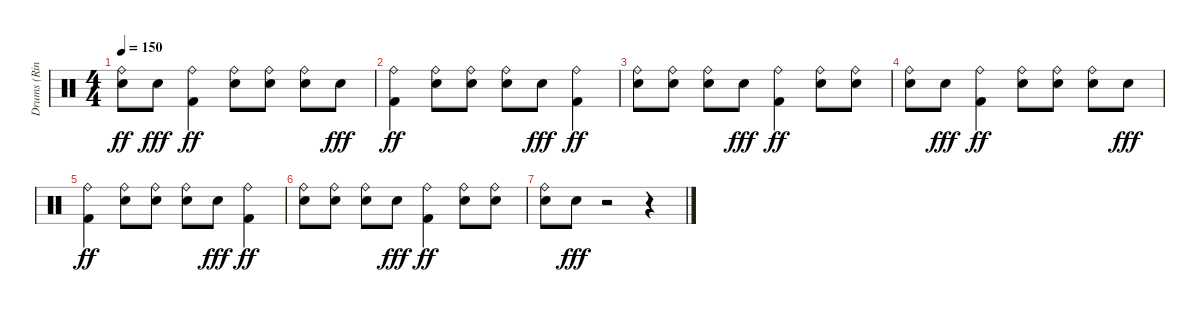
\track ("Drums (Ringo Starr)" "Drums (Rin") {instrument percussion}
\staff {score}
\articulation defaults
\ts (4 4)
\tempo 150
\clef neutral
\ks c
("Snare (hit) 2" "Ride (bell)").8{dy ff} "Snare (hit) 2".8{dy fff} ("Kick (hit) 2" "Ride (bell)").4{dy ff} ("Snare (hit) 2" "Ride (bell)").8 ("Ride (bell)" "Snare (hit) 2").8 ("Snare (hit) 2" "Ride (bell)").8 "Snare (hit) 2".8{dy fff} |
("Kick (hit) 2" "Ride (bell)").4{dy ff} ("Snare (hit) 2" "Ride (bell)").8 ("Ride (bell)" "Snare (hit) 2").8 ("Snare (hit) 2" "Ride (bell)").8 "Snare (hit) 2".8{dy fff} ("Kick (hit) 2" "Ride (bell)").4{dy ff volume 11} |
("Snare (hit) 2" "Ride (bell)").8{volume 10} ("Ride (bell)" "Snare (hit) 2").8{volume 10} ("Snare (hit) 2" "Ride (bell)").8{volume 10} "Snare (hit) 2".8{dy fff volume 9} ("Kick (hit) 2" "Ride (bell)").4{dy ff volume 9} ("Snare (hit) 2" "Ride (bell)").8{volume 8} ("Ride (bell)" "Snare (hit) 2").8{volume 8} |
("Snare (hit) 2" "Ride (bell)").8{volume 8} "Snare (hit) 2".8{dy fff volume 7} ("Kick (hit) 2" "Ride (bell)").4{dy ff volume 7} ("Snare (hit) 2" "Ride (bell)").8{volume 6} ("Ride (bell)" "Snare (hit) 2").8{volume 6} ("Snare (hit) 2" "Ride (bell)").8{volume 6} "Snare (hit) 2".8{dy fff volume 6} |
("Kick (hit) 2" "Ride (bell)").4{dy ff volume 5} ("Snare (hit) 2" "Ride (bell)").8{volume 5} ("Ride (bell)" "Snare (hit) 2").8{volume 4} ("Snare (hit) 2" "Ride (bell)").8{volume 4} "Snare (hit) 2".8{dy fff volume 4} ("Kick (hit) 2" "Ride (bell)").4{dy ff volume 4} |
("Snare (hit) 2" "Ride (bell)").8{volume 3} ("Ride (bell)" "Snare (hit) 2").8{volume 3} ("Snare (hit) 2" "Ride (bell)").8{volume 2} "Snare (hit) 2".8{dy fff volume 2} ("Kick (hit) 2" "Ride (bell)").4{dy ff volume 2} ("Snare (hit) 2" "Ride (bell)").8{volume 1} ("Ride (bell)" "Snare (hit) 2").8{volume 1} |
("Snare (hit) 2" "Ride (bell)").8{volume 1} "Snare (hit) 2".8{dy fff volume 0} r.2 r.4
